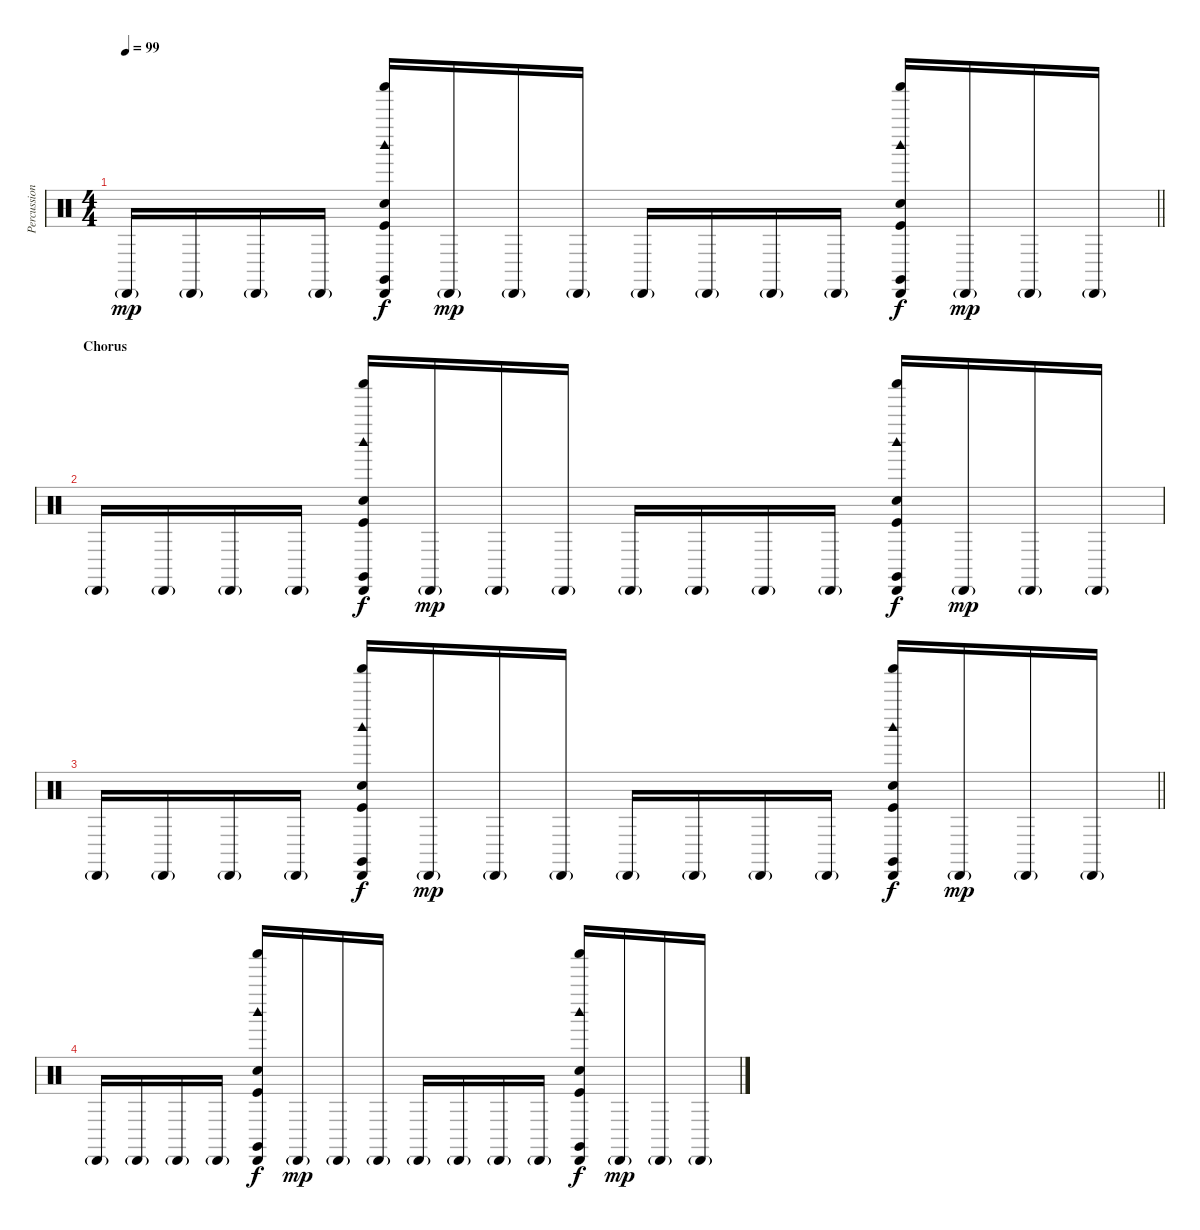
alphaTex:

\track ("Percussion" "Percussion") {instrument percussion}
\staff {score}
\articulation defaults
\ts (4 4)
\tempo 99
\clef neutral
\barLineRight lightlight
\ks c "Cabasa (hit)"{g}.16{dy mp} "Cabasa (hit)"{g}.16 "Cabasa (hit)"{g}.16 "Cabasa (hit)"{g}.16
("Cabasa (hit)" "Shaker (hit)" "Claves (hit)" "Woodblock high (hit)" "Hand Clap (hit)" "Kick (hit)").16{dy f} "Cabasa (hit)"{g}.16{dy mp} "Cabasa (hit)"{g}.16 "Cabasa (hit)"{g}.16 "Cabasa (hit)"{g}.16 "Cabasa (hit)"{g}.16 "Cabasa (hit)"{g}.16 "Cabasa (hit)"{g}.16 ("Cabasa (hit)" "Shaker (hit)" "Claves (hit)" "Woodblock high (hit)" "Hand Clap (hit)" "Kick (hit)").16{dy f} "Cabasa (hit)"{g}.16{dy mp} "Cabasa (hit)"{g}.16 "Cabasa (hit)"{g}.16 |
\section ("" "Chorus")
"Cabasa (hit)"{g}.16 "Cabasa (hit)"{g}.16 "Cabasa (hit)"{g}.16 "Cabasa (hit)"{g}.16 ("Cabasa (hit)" "Shaker (hit)" "Claves (hit)" "Woodblock high (hit)" "Hand Clap (hit)" "Kick (hit)").16{dy f} "Cabasa (hit)"{g}.16{dy mp} "Cabasa (hit)"{g}.16 "Cabasa (hit)"{g}.16 "Cabasa (hit)"{g}.16 "Cabasa (hit)"{g}.16 "Cabasa (hit)"{g}.16 "Cabasa (hit)"{g}.16 ("Cabasa (hit)" "Shaker (hit)" "Claves (hit)" "Woodblock high (hit)" "Hand Clap (hit)" "Kick (hit)").16{dy f} "Cabasa (hit)"{g}.16{dy mp} "Cabasa (hit)"{g}.16 "Cabasa (hit)"{g}.16 |
\barLineRight lightlight "Cabasa (hit)"{g}.16 "Cabasa (hit)"{g}.16 "Cabasa (hit)"{g}.16 "Cabasa (hit)"{g}.16
("Cabasa (hit)" "Shaker (hit)" "Claves (hit)" "Woodblock high (hit)" "Hand Clap (hit)" "Kick (hit)").16{dy f} "Cabasa (hit)"{g}.16{dy mp} "Cabasa (hit)"{g}.16 "Cabasa (hit)"{g}.16 "Cabasa (hit)"{g}.16 "Cabasa (hit)"{g}.16 "Cabasa (hit)"{g}.16 "Cabasa (hit)"{g}.16 ("Cabasa (hit)" "Shaker (hit)" "Claves (hit)" "Woodblock high (hit)" "Hand Clap (hit)" "Kick (hit)").16{dy f} "Cabasa (hit)"{g}.16{dy mp} "Cabasa (hit)"{g}.16 "Cabasa (hit)"{g}.16 |
"Cabasa (hit)"{g}.16 "Cabasa (hit)"{g}.16 "Cabasa (hit)"{g}.16 "Cabasa (hit)"{g}.16 ("Cabasa (hit)" "Shaker (hit)" "Claves (hit)" "Woodblock high (hit)" "Hand Clap (hit)" "Kick (hit)").16{dy f} "Cabasa (hit)"{g}.16{dy mp} "Cabasa (hit)"{g}.16 "Cabasa (hit)"{g}.16 "Cabasa (hit)"{g}.16 "Cabasa (hit)"{g}.16 "Cabasa (hit)"{g}.16 "Cabasa (hit)"{g}.16 ("Cabasa (hit)" "Shaker (hit)" "Claves (hit)" "Woodblock high (hit)" "Hand Clap (hit)" "Kick (hit)").16{dy f} "Cabasa (hit)"{g}.16{dy mp} "Cabasa (hit)"{g}.16 "Cabasa (hit)"{g}.16
